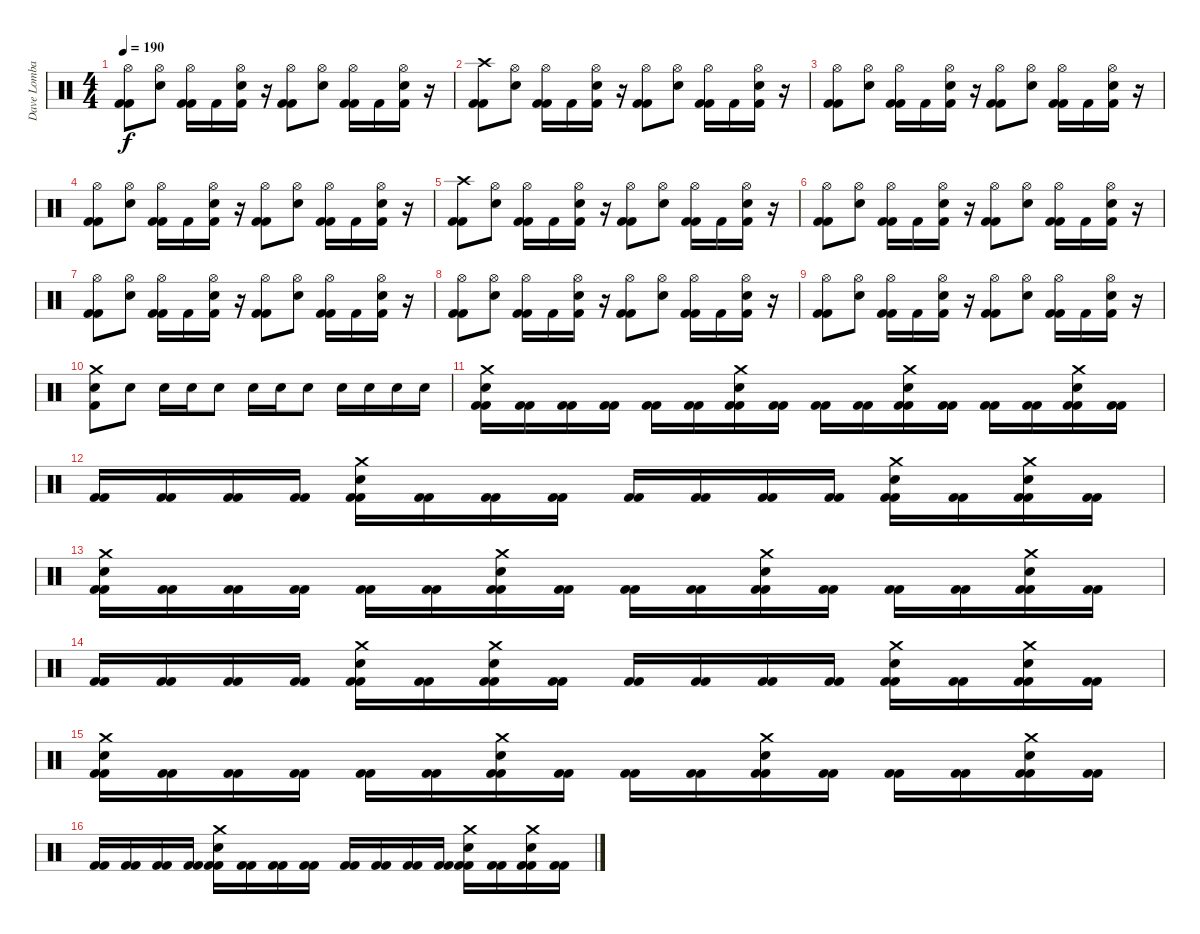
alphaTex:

\track ("Dave Lombardo" "Dave Lomba") {instrument percussion}
\staff {score}
\articulation defaults
\ts (4 4)
\tempo 190
\clef neutral
\ks c
("Kick (hit) 2" "Hi-Hat (open)" "Kick (hit) 2").8{dy f} ("Hi-Hat (open)" "Electric Snare (hit)").8 ("Kick (hit) 2" "Hi-Hat (open)" "Kick (hit) 2").16 "Kick (hit) 2".16 ("Hi-Hat (open)" "Electric Snare (hit)" "Kick (hit) 2").16 r.16 ("Kick (hit) 2" "Hi-Hat (open)" "Kick (hit) 2").8 ("Hi-Hat (open)" "Electric Snare (hit)").8 ("Kick (hit) 2" "Hi-Hat (open)" "Kick (hit) 2").16 "Kick (hit) 2".16 ("Hi-Hat (open)" "Electric Snare (hit)" "Kick (hit) 2").16 r.16 |
("Kick (hit) 2" "Crash high (hit)" "Kick (hit) 2").8 ("Hi-Hat (open)" "Electric Snare (hit)").8 ("Kick (hit) 2" "Hi-Hat (open)" "Kick (hit) 2").16 "Kick (hit) 2".16 ("Hi-Hat (open)" "Electric Snare (hit)" "Kick (hit) 2").16 r.16 ("Kick (hit) 2" "Hi-Hat (open)" "Kick (hit) 2").8 ("Hi-Hat (open)" "Electric Snare (hit)").8 ("Kick (hit) 2" "Hi-Hat (open)" "Kick (hit) 2").16 "Kick (hit) 2".16 ("Hi-Hat (open)" "Electric Snare (hit)" "Kick (hit) 2").16 r.16 |
("Kick (hit) 2" "Hi-Hat (open)" "Kick (hit) 2").8 ("Hi-Hat (open)" "Electric Snare (hit)").8 ("Kick (hit) 2" "Hi-Hat (open)" "Kick (hit) 2").16 "Kick (hit) 2".16 ("Hi-Hat (open)" "Electric Snare (hit)" "Kick (hit) 2").16 r.16 ("Kick (hit) 2" "Hi-Hat (open)" "Kick (hit) 2").8 ("Hi-Hat (open)" "Electric Snare (hit)").8 ("Kick (hit) 2" "Hi-Hat (open)" "Kick (hit) 2").16 "Kick (hit) 2".16 ("Hi-Hat (open)" "Electric Snare (hit)" "Kick (hit) 2").16 r.16 |
("Kick (hit) 2" "Hi-Hat (open)" "Kick (hit) 2").8 ("Hi-Hat (open)" "Electric Snare (hit)").8 ("Kick (hit) 2" "Hi-Hat (open)" "Kick (hit) 2").16 "Kick (hit) 2".16 ("Hi-Hat (open)" "Electric Snare (hit)" "Kick (hit) 2").16 r.16 ("Kick (hit) 2" "Hi-Hat (open)" "Kick (hit) 2").8 ("Hi-Hat (open)" "Electric Snare (hit)").8 ("Kick (hit) 2" "Hi-Hat (open)" "Kick (hit) 2").16 "Kick (hit) 2".16 ("Hi-Hat (open)" "Electric Snare (hit)" "Kick (hit) 2").16 r.16 |
("Kick (hit) 2" "Crash high (hit)" "Kick (hit) 2").8 ("Hi-Hat (open)" "Electric Snare (hit)").8 ("Kick (hit) 2" "Hi-Hat (open)" "Kick (hit) 2").16 "Kick (hit) 2".16 ("Hi-Hat (open)" "Electric Snare (hit)" "Kick (hit) 2").16 r.16 ("Kick (hit) 2" "Hi-Hat (open)" "Kick (hit) 2").8 ("Hi-Hat (open)" "Electric Snare (hit)").8 ("Kick (hit) 2" "Hi-Hat (open)" "Kick (hit) 2").16 "Kick (hit) 2".16 ("Hi-Hat (open)" "Electric Snare (hit)" "Kick (hit) 2").16 r.16 |
("Kick (hit) 2" "Hi-Hat (open)" "Kick (hit) 2").8 ("Hi-Hat (open)" "Electric Snare (hit)").8 ("Kick (hit) 2" "Hi-Hat (open)" "Kick (hit) 2").16 "Kick (hit) 2".16 ("Hi-Hat (open)" "Electric Snare (hit)" "Kick (hit) 2").16 r.16 ("Kick (hit) 2" "Hi-Hat (open)" "Kick (hit) 2").8 ("Hi-Hat (open)" "Electric Snare (hit)").8 ("Kick (hit) 2" "Hi-Hat (open)" "Kick (hit) 2").16 "Kick (hit) 2".16 ("Hi-Hat (open)" "Electric Snare (hit)" "Kick (hit) 2").16 r.16 |
("Kick (hit) 2" "Hi-Hat (open)" "Kick (hit) 2").8 ("Hi-Hat (open)" "Electric Snare (hit)").8 ("Kick (hit) 2" "Hi-Hat (open)" "Kick (hit) 2").16 "Kick (hit) 2".16 ("Hi-Hat (open)" "Electric Snare (hit)" "Kick (hit) 2").16 r.16 ("Kick (hit) 2" "Hi-Hat (open)" "Kick (hit) 2").8 ("Hi-Hat (open)" "Electric Snare (hit)").8 ("Kick (hit) 2" "Hi-Hat (open)" "Kick (hit) 2").16 "Kick (hit) 2".16 ("Hi-Hat (open)" "Electric Snare (hit)" "Kick (hit) 2").16 r.16 |
("Kick (hit) 2" "Hi-Hat (open)" "Kick (hit) 2").8 ("Hi-Hat (open)" "Electric Snare (hit)").8 ("Kick (hit) 2" "Hi-Hat (open)" "Kick (hit) 2").16 "Kick (hit) 2".16 ("Hi-Hat (open)" "Electric Snare (hit)" "Kick (hit) 2").16 r.16 ("Kick (hit) 2" "Hi-Hat (open)" "Kick (hit) 2").8 ("Hi-Hat (open)" "Electric Snare (hit)").8 ("Kick (hit) 2" "Hi-Hat (open)" "Kick (hit) 2").16 "Kick (hit) 2".16 ("Hi-Hat (open)" "Electric Snare (hit)" "Kick (hit) 2").16 r.16 |
("Kick (hit) 2" "Hi-Hat (open)" "Kick (hit) 2").8 ("Hi-Hat (open)" "Electric Snare (hit)").8 ("Kick (hit) 2" "Hi-Hat (open)" "Kick (hit) 2").16 "Kick (hit) 2".16 ("Hi-Hat (open)" "Electric Snare (hit)" "Kick (hit) 2").16 r.16 ("Kick (hit) 2" "Hi-Hat (open)" "Kick (hit) 2").8 ("Hi-Hat (open)" "Electric Snare (hit)").8 ("Kick (hit) 2" "Hi-Hat (open)" "Kick (hit) 2").16 "Kick (hit) 2".16 ("Hi-Hat (open)" "Electric Snare (hit)" "Kick (hit) 2").16 r.16 |
("Crash medium (hit)" "Electric Snare (hit)" "Kick (hit) 2").8 "Electric Snare (hit)".8 "Electric Snare (hit)".16 "Electric Snare (hit)".16 "Electric Snare (hit)".8 "Electric Snare (hit)".16 "Electric Snare (hit)".16 "Electric Snare (hit)".8 "Electric Snare (hit)".16 "Electric Snare (hit)".16 "Electric Snare (hit)".16 "Electric Snare (hit)".16 |
("Kick (hit) 2" "Crash medium (hit)" "Electric Snare (hit)" "Kick (hit) 2").16 ("Kick (hit) 2" "Kick (hit) 2").16 ("Kick (hit) 2" "Kick (hit) 2").16 ("Kick (hit) 2" "Kick (hit) 2").16 ("Kick (hit) 2" "Kick (hit) 2").16 ("Kick (hit) 2" "Kick (hit) 2").16 ("Kick (hit) 2" "Crash medium (hit)" "Electric Snare (hit)" "Kick (hit) 2").16 ("Kick (hit) 2" "Kick (hit) 2").16 ("Kick (hit) 2" "Kick (hit) 2").16 ("Kick (hit) 2" "Kick (hit) 2").16 ("Kick (hit) 2" "Crash medium (hit)" "Electric Snare (hit)" "Kick (hit) 2").16 ("Kick (hit) 2" "Kick (hit) 2").16 ("Kick (hit) 2" "Kick (hit) 2").16 ("Kick (hit) 2" "Kick (hit) 2").16 ("Kick (hit) 2" "Crash medium (hit)" "Electric Snare (hit)" "Kick (hit) 2").16 ("Kick (hit) 2" "Kick (hit) 2").16 |
("Kick (hit) 2" "Kick (hit) 2").16 ("Kick (hit) 2" "Kick (hit) 2").16 ("Kick (hit) 2" "Kick (hit) 2").16 ("Kick (hit) 2" "Kick (hit) 2").16 ("Kick (hit) 2" "Crash medium (hit)" "Electric Snare (hit)" "Kick (hit) 2").16 ("Kick (hit) 2" "Kick (hit) 2").16 ("Kick (hit) 2" "Kick (hit) 2").16 ("Kick (hit) 2" "Kick (hit) 2").16 ("Kick (hit) 2" "Kick (hit) 2").16 ("Kick (hit) 2" "Kick (hit) 2").16 ("Kick (hit) 2" "Kick (hit) 2").16 ("Kick (hit) 2" "Kick (hit) 2").16 ("Kick (hit) 2" "Crash medium (hit)" "Electric Snare (hit)" "Kick (hit) 2").16 ("Kick (hit) 2" "Kick (hit) 2").16 ("Kick (hit) 2" "Crash medium (hit)" "Electric Snare (hit)" "Kick (hit) 2").16 ("Kick (hit) 2" "Kick (hit) 2").16 |
("Kick (hit) 2" "Crash medium (hit)" "Electric Snare (hit)" "Kick (hit) 2").16 ("Kick (hit) 2" "Kick (hit) 2").16 ("Kick (hit) 2" "Kick (hit) 2").16 ("Kick (hit) 2" "Kick (hit) 2").16 ("Kick (hit) 2" "Kick (hit) 2").16 ("Kick (hit) 2" "Kick (hit) 2").16 ("Kick (hit) 2" "Crash medium (hit)" "Electric Snare (hit)" "Kick (hit) 2").16 ("Kick (hit) 2" "Kick (hit) 2").16 ("Kick (hit) 2" "Kick (hit) 2").16 ("Kick (hit) 2" "Kick (hit) 2").16 ("Kick (hit) 2" "Crash medium (hit)" "Electric Snare (hit)" "Kick (hit) 2").16 ("Kick (hit) 2" "Kick (hit) 2").16 ("Kick (hit) 2" "Kick (hit) 2").16 ("Kick (hit) 2" "Kick (hit) 2").16 ("Kick (hit) 2" "Crash medium (hit)" "Electric Snare (hit)" "Kick (hit) 2").16 ("Kick (hit) 2" "Kick (hit) 2").16 |
("Kick (hit) 2" "Kick (hit) 2").16 ("Kick (hit) 2" "Kick (hit) 2").16 ("Kick (hit) 2" "Kick (hit) 2").16 ("Kick (hit) 2" "Kick (hit) 2").16 ("Kick (hit) 2" "Crash medium (hit)" "Electric Snare (hit)" "Kick (hit) 2").16 ("Kick (hit) 2" "Kick (hit) 2").16 ("Kick (hit) 2" "Crash medium (hit)" "Electric Snare (hit)" "Kick (hit) 2").16 ("Kick (hit) 2" "Kick (hit) 2").16 ("Kick (hit) 2" "Kick (hit) 2").16 ("Kick (hit) 2" "Kick (hit) 2").16 ("Kick (hit) 2" "Kick (hit) 2").16 ("Kick (hit) 2" "Kick (hit) 2").16 ("Kick (hit) 2" "Crash medium (hit)" "Electric Snare (hit)" "Kick (hit) 2").16 ("Kick (hit) 2" "Kick (hit) 2").16 ("Kick (hit) 2" "Crash medium (hit)" "Electric Snare (hit)" "Kick (hit) 2").16 ("Kick (hit) 2" "Kick (hit) 2").16 |
("Kick (hit) 2" "Crash medium (hit)" "Electric Snare (hit)" "Kick (hit) 2").16 ("Kick (hit) 2" "Kick (hit) 2").16 ("Kick (hit) 2" "Kick (hit) 2").16 ("Kick (hit) 2" "Kick (hit) 2").16 ("Kick (hit) 2" "Kick (hit) 2").16 ("Kick (hit) 2" "Kick (hit) 2").16 ("Kick (hit) 2" "Crash medium (hit)" "Electric Snare (hit)" "Kick (hit) 2").16 ("Kick (hit) 2" "Kick (hit) 2").16 ("Kick (hit) 2" "Kick (hit) 2").16 ("Kick (hit) 2" "Kick (hit) 2").16 ("Kick (hit) 2" "Crash medium (hit)" "Electric Snare (hit)" "Kick (hit) 2").16 ("Kick (hit) 2" "Kick (hit) 2").16 ("Kick (hit) 2" "Kick (hit) 2").16 ("Kick (hit) 2" "Kick (hit) 2").16 ("Kick (hit) 2" "Crash medium (hit)" "Electric Snare (hit)" "Kick (hit) 2").16 ("Kick (hit) 2" "Kick (hit) 2").16 |
("Kick (hit) 2" "Kick (hit) 2").16 ("Kick (hit) 2" "Kick (hit) 2").16 ("Kick (hit) 2" "Kick (hit) 2").16 ("Kick (hit) 2" "Kick (hit) 2").16 ("Kick (hit) 2" "Crash medium (hit)" "Electric Snare (hit)" "Kick (hit) 2").16 ("Kick (hit) 2" "Kick (hit) 2").16 ("Kick (hit) 2" "Kick (hit) 2").16 ("Kick (hit) 2" "Kick (hit) 2").16 ("Kick (hit) 2" "Kick (hit) 2").16 ("Kick (hit) 2" "Kick (hit) 2").16 ("Kick (hit) 2" "Kick (hit) 2").16 ("Kick (hit) 2" "Kick (hit) 2").16 ("Kick (hit) 2" "Crash medium (hit)" "Electric Snare (hit)" "Kick (hit) 2").16 ("Kick (hit) 2" "Kick (hit) 2").16 ("Kick (hit) 2" "Crash medium (hit)" "Electric Snare (hit)" "Kick (hit) 2").16 ("Kick (hit) 2" "Kick (hit) 2").16
